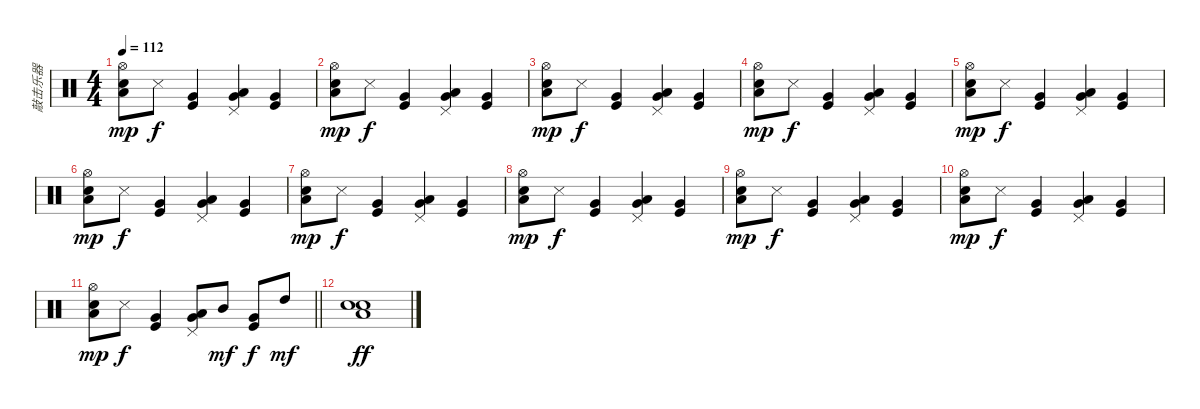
\track ("敲击乐器" "敲击乐器") {instrument percussion}
\staff {score}
\articulation defaults
\ts (4 4)
\tempo 112
\clef neutral
\ks c
("Low Floor Tom (hit)" "Snare (hit) 2" "Hi-Hat (open)").8{dy mp} "Metronome (hit)".8{dy f} ("Kick (hit)" "Very Low Tom (hit)").4 ("Very Low Tom (hit)" "Pedal Hi-Hat (hit)" "Low Tom (hit)").4 ("Kick (hit)" "Very Low Tom (hit)").4 |
("Low Floor Tom (hit)" "Snare (hit) 2" "Hi-Hat (open)").8{dy mp} "Metronome (hit)".8{dy f} ("Kick (hit)" "Very Low Tom (hit)").4 ("Very Low Tom (hit)" "Pedal Hi-Hat (hit)" "Low Tom (hit)").4 ("Kick (hit)" "Very Low Tom (hit)").4 |
("Low Floor Tom (hit)" "Snare (hit) 2" "Hi-Hat (open)").8{dy mp} "Metronome (hit)".8{dy f} ("Kick (hit)" "Very Low Tom (hit)").4 ("Very Low Tom (hit)" "Pedal Hi-Hat (hit)" "Low Tom (hit)").4 ("Kick (hit)" "Very Low Tom (hit)").4 |
("Low Floor Tom (hit)" "Snare (hit) 2" "Hi-Hat (open)").8{dy mp} "Metronome (hit)".8{dy f} ("Kick (hit)" "Very Low Tom (hit)").4 ("Very Low Tom (hit)" "Pedal Hi-Hat (hit)" "Low Tom (hit)").4 ("Kick (hit)" "Very Low Tom (hit)").4 |
("Low Floor Tom (hit)" "Snare (hit) 2" "Hi-Hat (open)").8{dy mp} "Metronome (hit)".8{dy f} ("Kick (hit)" "Very Low Tom (hit)").4 ("Very Low Tom (hit)" "Pedal Hi-Hat (hit)" "Low Tom (hit)").4 ("Kick (hit)" "Very Low Tom (hit)").4 |
("Low Floor Tom (hit)" "Snare (hit) 2" "Hi-Hat (open)").8{dy mp} "Metronome (hit)".8{dy f} ("Kick (hit)" "Very Low Tom (hit)").4 ("Very Low Tom (hit)" "Pedal Hi-Hat (hit)" "Low Tom (hit)").4 ("Kick (hit)" "Very Low Tom (hit)").4 |
("Low Floor Tom (hit)" "Snare (hit) 2" "Hi-Hat (open)").8{dy mp} "Metronome (hit)".8{dy f} ("Kick (hit)" "Very Low Tom (hit)").4 ("Very Low Tom (hit)" "Pedal Hi-Hat (hit)" "Low Tom (hit)").4 ("Kick (hit)" "Very Low Tom (hit)").4 |
("Low Floor Tom (hit)" "Snare (hit) 2" "Hi-Hat (open)").8{dy mp} "Metronome (hit)".8{dy f} ("Kick (hit)" "Very Low Tom (hit)").4 ("Very Low Tom (hit)" "Pedal Hi-Hat (hit)" "Low Tom (hit)").4 ("Kick (hit)" "Very Low Tom (hit)").4 |
("Low Floor Tom (hit)" "Snare (hit) 2" "Hi-Hat (open)").8{dy mp} "Metronome (hit)".8{dy f} ("Kick (hit)" "Very Low Tom (hit)").4 ("Very Low Tom (hit)" "Pedal Hi-Hat (hit)" "Low Tom (hit)").4 ("Kick (hit)" "Very Low Tom (hit)").4 |
("Low Floor Tom (hit)" "Snare (hit) 2" "Hi-Hat (open)").8{dy mp} "Metronome (hit)".8{dy f} ("Kick (hit)" "Very Low Tom (hit)").4 ("Very Low Tom (hit)" "Pedal Hi-Hat (hit)" "Low Tom (hit)").4 ("Kick (hit)" "Very Low Tom (hit)").4 |
\barLineRight lightlight
("Low Floor Tom (hit)" "Snare (hit) 2" "Hi-Hat (open)").8{dy mp} "Metronome (hit)".8{dy f} ("Kick (hit)" "Very Low Tom (hit)").4 ("Very Low Tom (hit)" "Pedal Hi-Hat (hit)" "Low Tom (hit)").8 "Mid Tom (hit)".8{dy mf} ("Kick (hit)" "Very Low Tom (hit)").8{dy f} "High Tom (hit)".8{dy mf} |
("Snare (hit) 2" "Low Floor Tom (hit)" "Hand Clap (hit)").1{dy ff}
